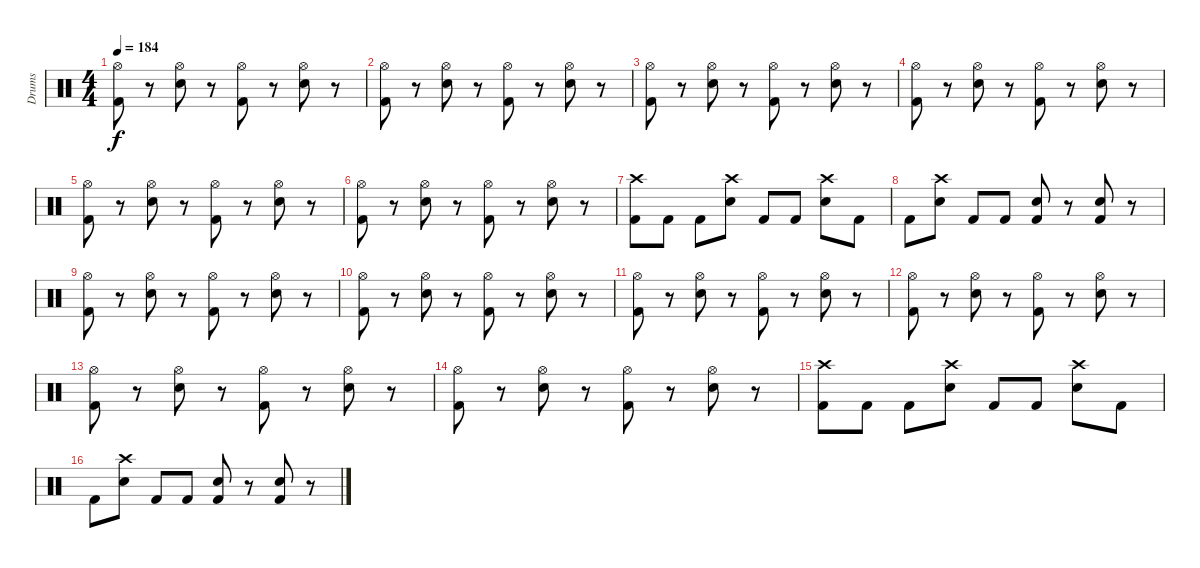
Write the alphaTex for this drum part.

\track ("Drums" "Drums") {instrument percussion}
\staff {score}
\articulation defaults
\ts (4 4)
\tempo 184
\clef neutral
\ks c
("Kick (hit) 2" "Hi-Hat (open)").8{dy f} r.8 ("Electric Snare (hit)" "Hi-Hat (open)").8 r.8 ("Kick (hit) 2" "Hi-Hat (open)").8 r.8 ("Electric Snare (hit)" "Hi-Hat (open)").8 r.8 |
("Kick (hit) 2" "Hi-Hat (open)").8 r.8 ("Electric Snare (hit)" "Hi-Hat (open)").8 r.8 ("Kick (hit) 2" "Hi-Hat (open)").8 r.8 ("Electric Snare (hit)" "Hi-Hat (open)").8 r.8 |
("Kick (hit) 2" "Hi-Hat (open)").8 r.8 ("Electric Snare (hit)" "Hi-Hat (open)").8 r.8 ("Kick (hit) 2" "Hi-Hat (open)").8 r.8 ("Electric Snare (hit)" "Hi-Hat (open)").8 r.8 |
("Kick (hit) 2" "Hi-Hat (open)").8 r.8 ("Electric Snare (hit)" "Hi-Hat (open)").8 r.8 ("Kick (hit) 2" "Hi-Hat (open)").8 r.8 ("Electric Snare (hit)" "Hi-Hat (open)").8 r.8 |
("Kick (hit) 2" "Hi-Hat (open)").8 r.8 ("Electric Snare (hit)" "Hi-Hat (open)").8 r.8 ("Kick (hit) 2" "Hi-Hat (open)").8 r.8 ("Electric Snare (hit)" "Hi-Hat (open)").8 r.8 |
("Kick (hit) 2" "Hi-Hat (open)").8 r.8 ("Electric Snare (hit)" "Hi-Hat (open)").8 r.8 ("Kick (hit) 2" "Hi-Hat (open)").8 r.8 ("Electric Snare (hit)" "Hi-Hat (open)").8 r.8 |
("Kick (hit) 2" "Crash high (hit)").8 "Kick (hit) 2".8 "Kick (hit) 2".8 ("Crash high (hit)" "Electric Snare (hit)").8 "Kick (hit) 2".8 "Kick (hit) 2".8 ("Crash high (hit)" "Electric Snare (hit)").8 "Kick (hit) 2".8 |
"Kick (hit) 2".8 ("Crash high (hit)" "Electric Snare (hit)").8 "Kick (hit) 2".8 "Kick (hit) 2".8 ("Snare (hit) 2" "Kick (hit) 2").8 r.8 ("Snare (hit) 2" "Kick (hit) 2").8 r.8 |
("Kick (hit) 2" "Hi-Hat (open)").8 r.8 ("Electric Snare (hit)" "Hi-Hat (open)").8 r.8 ("Kick (hit) 2" "Hi-Hat (open)").8 r.8 ("Electric Snare (hit)" "Hi-Hat (open)").8 r.8 |
("Kick (hit) 2" "Hi-Hat (open)").8 r.8 ("Electric Snare (hit)" "Hi-Hat (open)").8 r.8 ("Kick (hit) 2" "Hi-Hat (open)").8 r.8 ("Electric Snare (hit)" "Hi-Hat (open)").8 r.8 |
("Kick (hit) 2" "Hi-Hat (open)").8 r.8 ("Electric Snare (hit)" "Hi-Hat (open)").8 r.8 ("Kick (hit) 2" "Hi-Hat (open)").8 r.8 ("Electric Snare (hit)" "Hi-Hat (open)").8 r.8 |
("Kick (hit) 2" "Hi-Hat (open)").8 r.8 ("Electric Snare (hit)" "Hi-Hat (open)").8 r.8 ("Kick (hit) 2" "Hi-Hat (open)").8 r.8 ("Electric Snare (hit)" "Hi-Hat (open)").8 r.8 |
("Kick (hit) 2" "Hi-Hat (open)").8 r.8 ("Electric Snare (hit)" "Hi-Hat (open)").8 r.8 ("Kick (hit) 2" "Hi-Hat (open)").8 r.8 ("Electric Snare (hit)" "Hi-Hat (open)").8 r.8 |
("Kick (hit) 2" "Hi-Hat (open)").8 r.8 ("Electric Snare (hit)" "Hi-Hat (open)").8 r.8 ("Kick (hit) 2" "Hi-Hat (open)").8 r.8 ("Electric Snare (hit)" "Hi-Hat (open)").8 r.8 |
("Kick (hit) 2" "Crash high (hit)").8 "Kick (hit) 2".8 "Kick (hit) 2".8 ("Crash high (hit)" "Electric Snare (hit)").8 "Kick (hit) 2".8 "Kick (hit) 2".8 ("Crash high (hit)" "Electric Snare (hit)").8 "Kick (hit) 2".8 |
"Kick (hit) 2".8 ("Crash high (hit)" "Electric Snare (hit)").8 "Kick (hit) 2".8 "Kick (hit) 2".8 ("Snare (hit) 2" "Kick (hit) 2").8 r.8 ("Snare (hit) 2" "Kick (hit) 2").8 r.8
